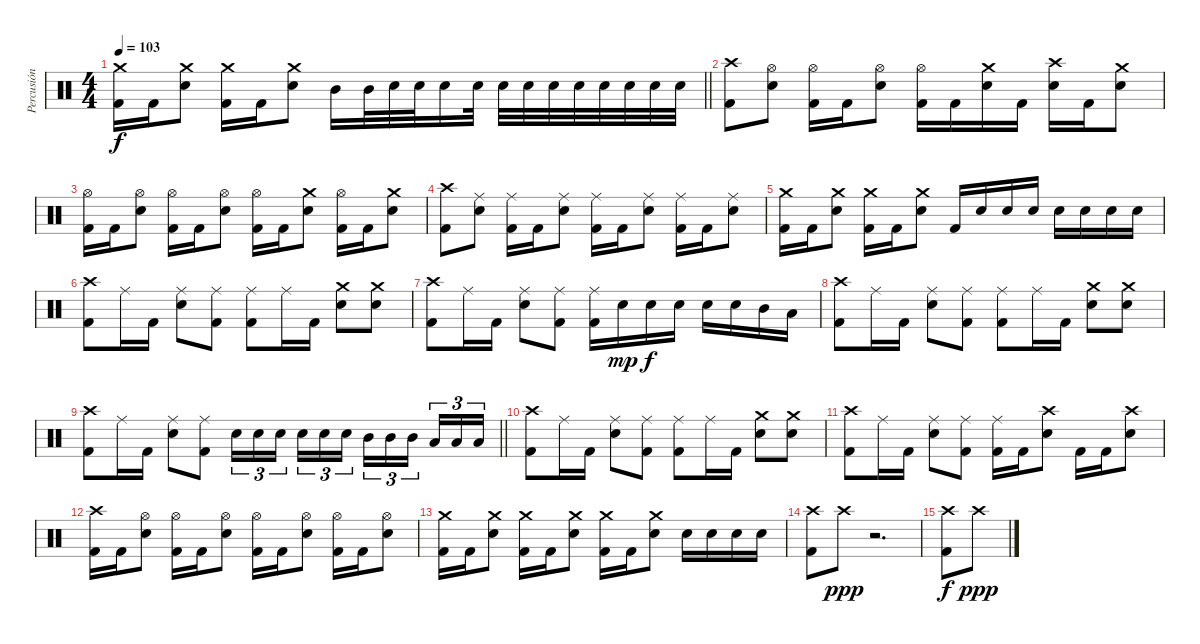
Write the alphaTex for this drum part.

\track ("Percusión" "Percusión") {instrument percussion}
\staff {score}
\articulation defaults
\ts (4 4)
\tempo 103
\clef neutral
\barLineRight lightlight
\ks c
("Crash medium (hit)" "Kick (hit) 2").16{dy f} "Kick (hit) 2".16 ("Crash medium (hit)" "Snare (hit) 2").8 ("Crash medium (hit)" "Kick (hit) 2").16 "Kick (hit) 2".16 ("Crash medium (hit)" "Snare (hit) 2").8 "Mid Tom (hit)".16 "Mid Tom (hit)".32 "Snare (hit) 2".32 "Snare (hit) 2".32 "Snare (hit) 2".16 "Snare (hit) 2".32 "Snare (hit) 2".32 "Snare (hit) 2".32 "Snare (hit) 2".32 "Snare (hit) 2".32 "Snare (hit) 2".32 "Snare (hit) 2".32 "Snare (hit) 2".32 "Snare (hit) 2".32 |
("Crash high (hit)" "Kick (hit) 2").8 ("Hi-Hat (open)" "Snare (hit) 2").8 ("Hi-Hat (open)" "Kick (hit) 2").16 "Kick (hit) 2".16 ("Hi-Hat (open)" "Snare (hit) 2").8 ("Hi-Hat (open)" "Kick (hit) 2").16 "Kick (hit) 2".16 ("Crash medium (hit)" "Snare (hit) 2").16 "Kick (hit) 2".16 ("Crash high (hit)" "Snare (hit) 2").16 "Kick (hit) 2".16 ("Crash medium (hit)" "Snare (hit) 2").8 |
("Hi-Hat (open)" "Kick (hit) 2").16 "Kick (hit) 2".16 ("Hi-Hat (open)" "Snare (hit) 2").8 ("Hi-Hat (open)" "Kick (hit) 2").16 "Kick (hit) 2".16 ("Hi-Hat (open)" "Snare (hit) 2").8 ("Hi-Hat (open)" "Kick (hit) 2").16 "Kick (hit) 2".16 ("Crash medium (hit)" "Snare (hit) 2").8 ("Hi-Hat (open)" "Kick (hit) 2").16 "Kick (hit) 2".16 ("Crash medium (hit)" "Snare (hit) 2").8 |
("Crash high (hit)" "Kick (hit) 2").8 ("Ride (middle)" "Snare (hit) 2").8 ("Ride (middle)" "Kick (hit) 2").16 "Kick (hit) 2".16 ("Ride (middle)" "Snare (hit) 2").8 ("Ride (middle)" "Kick (hit) 2").16 "Kick (hit) 2".16 ("Ride (middle)" "Snare (hit) 2").8 ("Ride (middle)" "Kick (hit) 2").16 "Kick (hit) 2".16 ("Ride (middle)" "Snare (hit) 2").8 |
("Crash medium (hit)" "Kick (hit) 2").16 "Kick (hit) 2".16 ("Crash medium (hit)" "Snare (hit) 2").8 ("Crash medium (hit)" "Kick (hit) 2").16 "Kick (hit) 2".16 ("Crash medium (hit)" "Snare (hit) 2").8 "Kick (hit) 2".16 "Snare (hit) 2".16 "Snare (hit) 2".16 "Snare (hit) 2".16 "Snare (hit) 2".16 "Snare (hit) 2".16 "Snare (hit) 2".16 "Snare (hit) 2".16 |
("Crash high (hit)" "Kick (hit) 2").8 "Ride (middle)".16 "Kick (hit) 2".16 ("Ride (middle)" "Snare (hit) 2").8 ("Ride (middle)" "Kick (hit) 2").8 ("Ride (middle)" "Kick (hit) 2").8 "Ride (middle)".16 "Kick (hit) 2".16 ("Crash medium (hit)" "Snare (hit) 2").8 ("Crash medium (hit)" "Snare (hit) 2").8 |
("Crash high (hit)" "Kick (hit) 2").8 "Ride (middle)".16 "Kick (hit) 2".16 ("Ride (middle)" "Snare (hit) 2").8 ("Ride (middle)" "Kick (hit) 2").8 ("Ride (middle)" "Kick (hit) 2").16 "Snare (hit) 2".16{dy mp} "Snare (hit) 2".16{dy f} "Snare (hit) 2".16 "Snare (hit) 2".16 "Snare (hit) 2".16 "Mid Tom (hit)".16 "Low Tom (hit)".16 |
("Crash high (hit)" "Kick (hit) 2").8 "Ride (middle)".16 "Kick (hit) 2".16 ("Ride (middle)" "Snare (hit) 2").8 ("Ride (middle)" "Kick (hit) 2").8 ("Ride (middle)" "Kick (hit) 2").8 "Ride (middle)".16 "Kick (hit) 2".16 ("Crash medium (hit)" "Snare (hit) 2").8 ("Crash medium (hit)" "Snare (hit) 2").8 |
\barLineRight lightlight
("Crash high (hit)" "Kick (hit) 2").8 "Ride (middle)".16 "Kick (hit) 2".16 ("Ride (middle)" "Snare (hit) 2").8 ("Ride (middle)" "Kick (hit) 2").8 "Snare (hit) 2".16{tu (3 2)} "Snare (hit) 2".16{tu (3 2)} "Snare (hit) 2".16{tu (3 2) beam splitsecondary} "Snare (hit) 2".16{tu (3 2)} "Snare (hit) 2".16{tu (3 2)} "Snare (hit) 2".16{tu (3 2)} "Mid Tom (hit)".16{tu (3 2)} "Mid Tom (hit)".16{tu (3 2)} "Mid Tom (hit)".16{tu (3 2) beam splitsecondary} "Low Tom (hit)".16{tu (3 2)} "Low Tom (hit)".16{tu (3 2)} "Low Tom (hit)".16{tu (3 2)} |
("Crash high (hit)" "Kick (hit) 2").8 "Ride (middle)".16 "Kick (hit) 2".16 ("Ride (middle)" "Snare (hit) 2").8 ("Ride (middle)" "Kick (hit) 2").8 ("Ride (middle)" "Kick (hit) 2").8 "Ride (middle)".16 "Kick (hit) 2".16 ("Crash medium (hit)" "Snare (hit) 2").8 ("Crash medium (hit)" "Snare (hit) 2").8 |
("Crash high (hit)" "Kick (hit) 2").8 "Ride (middle)".16 "Kick (hit) 2".16 ("Ride (middle)" "Snare (hit) 2").8 ("Ride (middle)" "Kick (hit) 2").8 ("Ride (middle)" "Kick (hit) 2").16 "Kick (hit) 2".16 ("Crash high (hit)" "Snare (hit) 2").8 "Kick (hit) 2".16 "Kick (hit) 2".16 ("Crash high (hit)" "Snare (hit) 2").8 |
("Crash high (hit)" "Kick (hit) 2").16 "Kick (hit) 2".16 ("Hi-Hat (open)" "Snare (hit) 2").8 ("Hi-Hat (open)" "Kick (hit) 2").16 "Kick (hit) 2".16 ("Hi-Hat (open)" "Snare (hit) 2").8 ("Hi-Hat (open)" "Kick (hit) 2").16 "Kick (hit) 2".16 ("Hi-Hat (open)" "Snare (hit) 2").8 ("Hi-Hat (open)" "Kick (hit) 2").16 "Kick (hit) 2".16 ("Hi-Hat (open)" "Snare (hit) 2").8 |
("Crash medium (hit)" "Kick (hit) 2").16 "Kick (hit) 2".16 ("Crash medium (hit)" "Snare (hit) 2").8 ("Crash medium (hit)" "Kick (hit) 2").16 "Kick (hit) 2".16 ("Crash medium (hit)" "Snare (hit) 2").8 ("Crash medium (hit)" "Kick (hit) 2").16 "Kick (hit) 2".16 ("Crash medium (hit)" "Snare (hit) 2").8 "Snare (hit) 2".16 "Snare (hit) 2".16 "Snare (hit) 2".16 "Snare (hit) 2".16 |
("Crash high (hit)" "Kick (hit) 2").8 "Crash high (hit)".8{dy ppp} r.2{d} |
("Crash high (hit)" "Kick (hit) 2").8{dy f} "Crash high (hit)".8{dy ppp}
